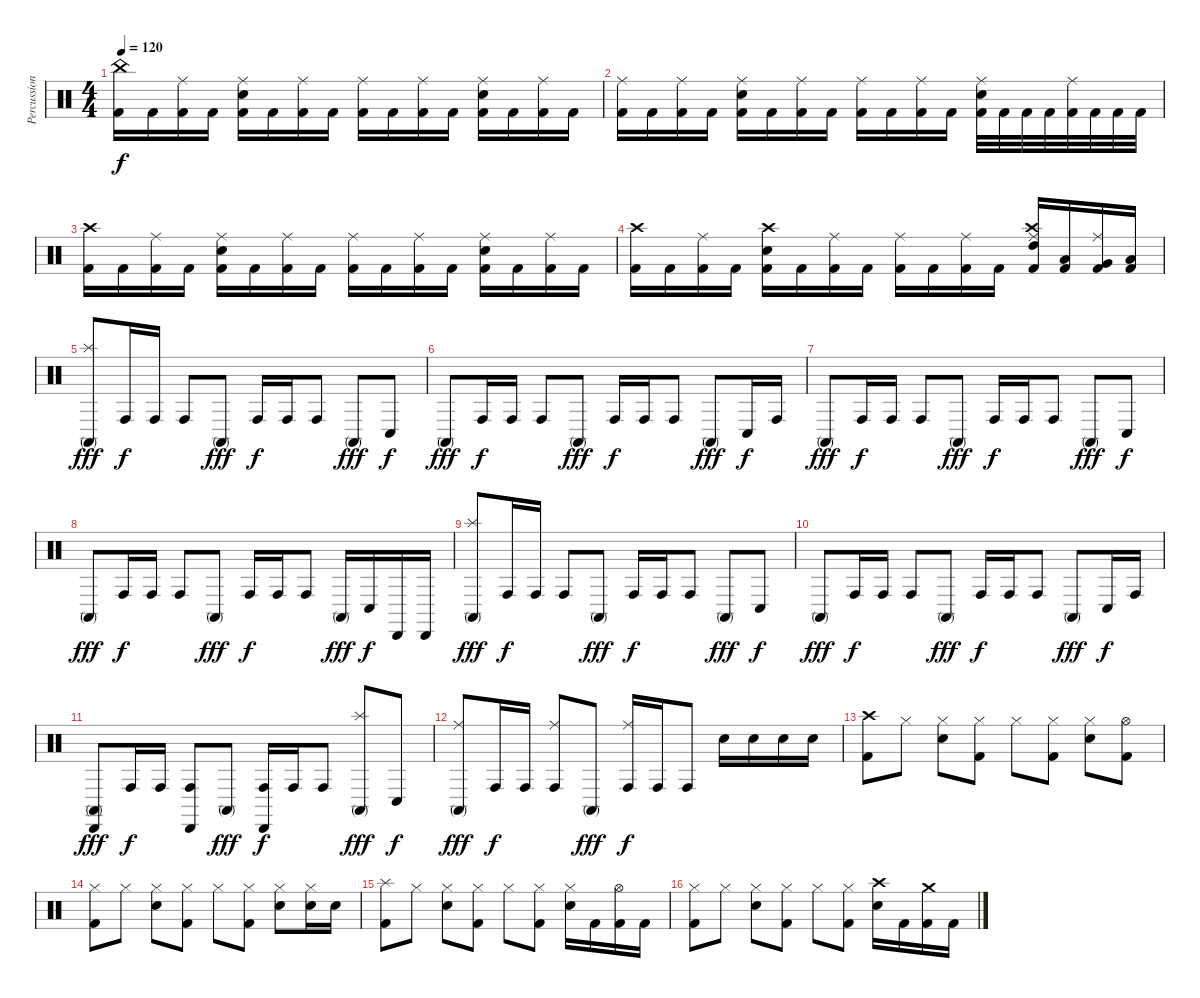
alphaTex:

\track ("Percussion" "Percussion") {instrument percussion}
\staff {score}
\articulation defaults
\ts (4 4)
\tempo 120
\clef neutral
\ks c
("China (hit)" "Kick (hit) 2").16{dy f} "Kick (hit) 2".16 ("Ride (middle)" "Kick (hit) 2").16 "Kick (hit) 2".16 ("Ride (middle)" "Snare (hit) 2" "Kick (hit) 2").16 "Kick (hit) 2".16 ("Ride (middle)" "Kick (hit) 2").16 "Kick (hit) 2".16 ("Ride (middle)" "Kick (hit) 2").16 "Kick (hit) 2".16 ("Ride (middle)" "Kick (hit) 2").16 "Kick (hit) 2".16 ("Ride (middle)" "Snare (hit) 2" "Kick (hit) 2").16 "Kick (hit) 2".16 ("Ride (middle)" "Kick (hit) 2").16 "Kick (hit) 2".16 |
("Ride (middle)" "Kick (hit) 2").16 "Kick (hit) 2".16 ("Ride (middle)" "Kick (hit) 2").16 "Kick (hit) 2".16 ("Ride (middle)" "Snare (hit) 2" "Kick (hit) 2").16 "Kick (hit) 2".16 ("Ride (middle)" "Kick (hit) 2").16 "Kick (hit) 2".16 ("Ride (middle)" "Kick (hit) 2").16 "Kick (hit) 2".16 ("Ride (middle)" "Kick (hit) 2").16 "Kick (hit) 2".16 ("Ride (middle)" "Snare (hit) 2" "Kick (hit) 2").32 "Kick (hit) 2".32 "Kick (hit) 2".32 "Kick (hit) 2".32 ("Ride (middle)" "Kick (hit) 2").32 "Kick (hit) 2".32 "Kick (hit) 2".32 "Kick (hit) 2".32 |
("Crash high (hit)" "Kick (hit) 2").16 "Kick (hit) 2".16 ("Ride (middle)" "Kick (hit) 2").16 "Kick (hit) 2".16 ("Ride (middle)" "Snare (hit) 2" "Kick (hit) 2").16 "Kick (hit) 2".16 ("Ride (middle)" "Kick (hit) 2").16 "Kick (hit) 2".16 ("Ride (middle)" "Kick (hit) 2").16 "Kick (hit) 2".16 ("Ride (middle)" "Kick (hit) 2").16 "Kick (hit) 2".16 ("Ride (middle)" "Snare (hit) 2" "Kick (hit) 2").16 "Kick (hit) 2".16 ("Ride (middle)" "Kick (hit) 2").16 "Kick (hit) 2".16 |
("Crash high (hit)" "Kick (hit) 2").16 "Kick (hit) 2".16 ("Ride (middle)" "Kick (hit) 2").16 "Kick (hit) 2".16 ("Crash high (hit)" "Snare (hit) 2" "Kick (hit) 2").16 "Kick (hit) 2".16 ("Ride (middle)" "Kick (hit) 2").16 "Kick (hit) 2".16 ("Ride (middle)" "Kick (hit) 2").16 "Kick (hit) 2".16 ("Ride (middle)" "Kick (hit) 2").16 "Kick (hit) 2".16 ("Crash high (hit)" "Ride (middle)" "High Tom (hit)" "Kick (hit) 2").16 ("Low Tom (hit)" "Kick (hit) 2").16 ("Ride (middle)" "Very Low Tom (hit)" "Kick (hit) 2").16 ("Low Floor Tom (hit)" "Kick (hit) 2").16 |
("Splash (hit)" "Conga high (mute)").8{dy fff} "Conga high (hit)".16{dy f} "Conga high (hit)".16 "Conga high (hit)".8 "Conga high (mute)".8{dy fff} "Conga high (hit)".16{dy f} "Conga high (hit)".16 "Conga high (hit)".8 "Conga high (mute)".8{dy fff} "Conga low (hit)".8{dy f} |
"Conga high (mute)".8{dy fff} "Conga high (hit)".16{dy f} "Conga high (hit)".16 "Conga high (hit)".8 "Conga high (mute)".8{dy fff} "Conga high (hit)".16{dy f} "Conga high (hit)".16 "Conga high (hit)".8 "Conga high (mute)".8{dy fff} "Conga low (hit)".16{dy f} "Conga high (hit)".16 |
"Conga high (mute)".8{dy fff} "Conga high (hit)".16{dy f} "Conga high (hit)".16 "Conga high (hit)".8 "Conga high (mute)".8{dy fff} "Conga high (hit)".16{dy f} "Conga high (hit)".16 "Conga high (hit)".8 "Conga high (mute)".8{dy fff} "Conga low (hit)".8{dy f} |
"Conga high (mute)".8{dy fff} "Conga high (hit)".16{dy f} "Conga high (hit)".16 "Conga high (hit)".8 "Conga high (mute)".8{dy fff} "Conga high (hit)".16{dy f} "Conga high (hit)".16 "Conga high (hit)".8 "Conga high (mute)".16{dy fff} "Conga low (hit)".16{dy f} "Cabasa (hit)".16 "Cabasa (hit)".16 |
("Splash (hit)" "Conga high (mute)").8{dy fff} "Conga high (hit)".16{dy f} "Conga high (hit)".16 "Conga high (hit)".8 "Conga high (mute)".8{dy fff} "Conga high (hit)".16{dy f} "Conga high (hit)".16 "Conga high (hit)".8 "Conga high (mute)".8{dy fff} "Conga low (hit)".8{dy f} |
"Conga high (mute)".8{dy fff} "Conga high (hit)".16{dy f} "Conga high (hit)".16 "Conga high (hit)".8 "Conga high (mute)".8{dy fff} "Conga high (hit)".16{dy f} "Conga high (hit)".16 "Conga high (hit)".8 "Conga high (mute)".8{dy fff} "Conga low (hit)".16{dy f} "Conga high (hit)".16 |
("Cabasa (hit)" "Conga high (mute)").8{dy fff} "Conga high (hit)".16{dy f} "Conga high (hit)".16 ("Cabasa (hit)" "Conga high (hit)").8 "Conga high (mute)".8{dy fff} ("Cabasa (hit)" "Conga high (hit)").16{dy f} "Conga high (hit)".16 "Conga high (hit)".8 ("Splash (hit)" "Conga high (mute)").8{dy fff} "Conga low (hit)".8{dy f} |
("Ride (middle)" "Conga high (mute)").8{dy fff} "Conga high (hit)".16{dy f} "Conga high (hit)".16 ("Ride (middle)" "Conga high (hit)").8 "Conga high (mute)".8{dy fff} ("Ride (middle)" "Conga high (hit)").16{dy f} "Conga high (hit)".16 "Conga high (hit)".8 "Snare (hit) 2".16 "Snare (hit) 2".16 "Snare (hit) 2".16 "Snare (hit) 2".16 |
("Crash high (hit)" "Kick (hit) 2").8 "Hi-Hat (closed)".8 ("Hi-Hat (closed)" "Snare (hit) 2").8 ("Hi-Hat (closed)" "Kick (hit) 2").8 "Hi-Hat (closed)".8 ("Hi-Hat (closed)" "Kick (hit) 2").8 ("Hi-Hat (closed)" "Snare (hit) 2").8 ("Hi-Hat (open)" "Kick (hit) 2").8 |
("Hi-Hat (closed)" "Kick (hit) 2").8 "Hi-Hat (closed)".8 ("Hi-Hat (closed)" "Snare (hit) 2").8 ("Hi-Hat (closed)" "Kick (hit) 2").8 "Hi-Hat (closed)".8 ("Hi-Hat (closed)" "Kick (hit) 2").8 ("Hi-Hat (closed)" "Snare (hit) 2").8 ("Hi-Hat (closed)" "Snare (hit) 2").16 "Snare (hit) 2".16 |
("Splash (hit)" "Kick (hit) 2").8 "Hi-Hat (closed)".8 ("Hi-Hat (closed)" "Snare (hit) 2").8 ("Hi-Hat (closed)" "Kick (hit) 2").8 "Hi-Hat (closed)".8 ("Hi-Hat (closed)" "Kick (hit) 2").8 ("Hi-Hat (closed)" "Snare (hit) 2").16 "Kick (hit) 2".16 ("Hi-Hat (open)" "Kick (hit) 2").16 "Kick (hit) 2".16 |
("Hi-Hat (closed)" "Kick (hit) 2").8 "Hi-Hat (closed)".8 ("Hi-Hat (closed)" "Snare (hit) 2").8 ("Hi-Hat (closed)" "Kick (hit) 2").8 "Hi-Hat (closed)".8 ("Hi-Hat (closed)" "Kick (hit) 2").8 ("Crash high (hit)" "Snare (hit) 2").16 "Kick (hit) 2".16 ("Crash medium (hit)" "Kick (hit) 2").16 "Kick (hit) 2".16
